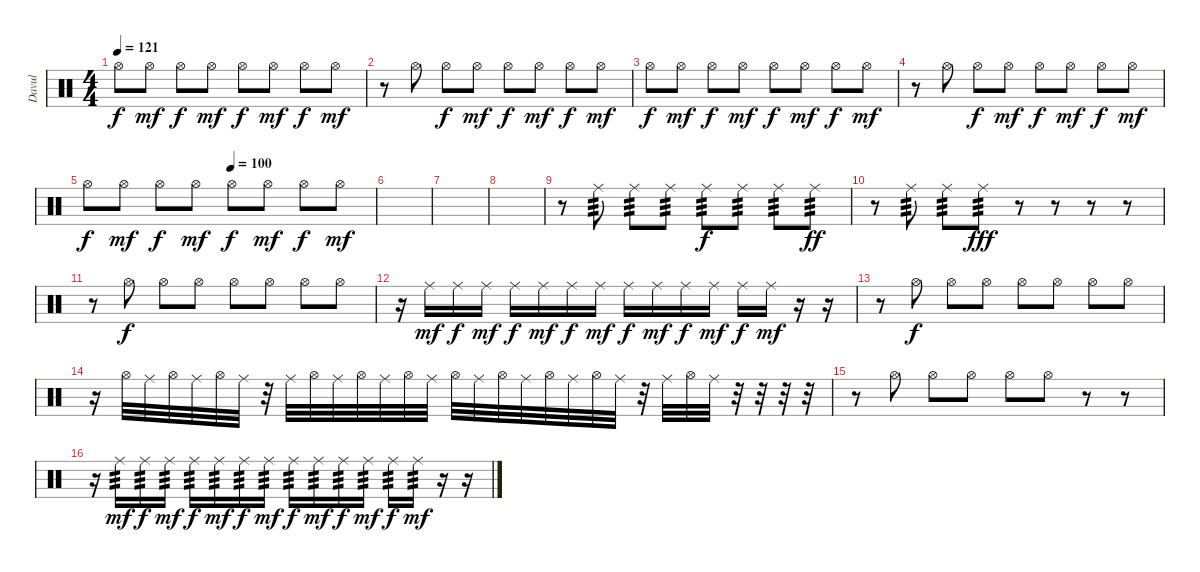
\track ("Davul" "Davul") {instrument percussion}
\staff {score}
\articulation defaults
\ts (4 4)
\tempo 121
\clef neutral
\ks c "Hi-Hat (open)".8{dy f} "Hi-Hat (open)".8{dy mf} "Hi-Hat (open)".8{dy f} "Hi-Hat (open)".8{dy mf} "Hi-Hat (open)".8{dy f} "Hi-Hat (open)".8{dy mf} "Hi-Hat (open)".8{dy f} "Hi-Hat (open)".8{dy mf}
|
r.8 "Hi-Hat (open)".8 "Hi-Hat (open)".8{dy f} "Hi-Hat (open)".8{dy mf} "Hi-Hat (open)".8{dy f} "Hi-Hat (open)".8{dy mf} "Hi-Hat (open)".8{dy f} "Hi-Hat (open)".8{dy mf} |
"Hi-Hat (open)".8{dy f} "Hi-Hat (open)".8{dy mf} "Hi-Hat (open)".8{dy f} "Hi-Hat (open)".8{dy mf} "Hi-Hat (open)".8{dy f} "Hi-Hat (open)".8{dy mf} "Hi-Hat (open)".8{dy f} "Hi-Hat (open)".8{dy mf} |
r.8 "Hi-Hat (open)".8 "Hi-Hat (open)".8{dy f} "Hi-Hat (open)".8{dy mf} "Hi-Hat (open)".8{dy f} "Hi-Hat (open)".8{dy mf} "Hi-Hat (open)".8{dy f} "Hi-Hat (open)".8{dy mf} |
\tempo (100 0.5)
"Hi-Hat (open)".8{dy f} "Hi-Hat (open)".8{dy mf} "Hi-Hat (open)".8{dy f} "Hi-Hat (open)".8{dy mf} "Hi-Hat (open)".8{dy f} "Hi-Hat (open)".8{dy mf} "Hi-Hat (open)".8{dy f} "Hi-Hat (open)".8{dy mf} |
\section ("" "")
|
|
|
r.8 "Ride (middle)".8{tp 3} "Ride (middle)".8{tp 3} "Ride (middle)".8{tp 3} "Ride (middle)".8{tp 3 dy f} "Ride (middle)".8{tp 3} "Ride (middle)".8{tp 3} "Ride (middle)".8{tp 3 dy ff} |
r.8 "Ride (middle)".8{tp 3} "Ride (middle)".8{tp 3} "Ride (middle)".8{tp 3 dy fff} r.8 r.8 r.8 r.8 |
r.8 "Hi-Hat (open)".8{dy f} "Hi-Hat (open)".8 "Hi-Hat (open)".8 "Hi-Hat (open)".8 "Hi-Hat (open)".8 "Hi-Hat (open)".8 "Hi-Hat (open)".8 |
r.16 "Ride (middle)".16{dy mf} "Ride (middle)".16{dy f} "Ride (middle)".16{dy mf} "Ride (middle)".16{dy f} "Ride (middle)".16{dy mf} "Ride (middle)".16{dy f} "Ride (middle)".16{dy mf} "Ride (middle)".16{dy f} "Ride (middle)".16{dy mf} "Ride (middle)".16{dy f} "Ride (middle)".16{dy mf} "Ride (middle)".16{dy f} "Ride (middle)".16{dy mf} r.16 r.16 |
r.8 "Hi-Hat (open)".8{dy f} "Hi-Hat (open)".8 "Hi-Hat (open)".8 "Hi-Hat (open)".8 "Hi-Hat (open)".8 "Hi-Hat (open)".8 "Hi-Hat (open)".8 |
r.16 "Hi-Hat (open)".32 "Ride (middle)".32 "Hi-Hat (open)".32 "Ride (middle)".32 "Hi-Hat (open)".32 "Ride (middle)".32 r.32 "Ride (middle)".32 "Hi-Hat (open)".32 "Ride (middle)".32 "Hi-Hat (open)".32 "Ride (middle)".32 "Hi-Hat (open)".32 "Ride (middle)".32 "Hi-Hat (open)".32 "Ride (middle)".32 "Hi-Hat (open)".32 "Ride (middle)".32 "Hi-Hat (open)".32 "Ride (middle)".32 "Hi-Hat (open)".32 "Ride (middle)".32 r.32 "Ride (middle)".32 "Hi-Hat (open)".32 "Ride (middle)".32 r.32 r.32 r.32 r.32 |
r.8 "Hi-Hat (open)".8 "Hi-Hat (open)".8 "Hi-Hat (open)".8 "Hi-Hat (open)".8 "Hi-Hat (open)".8 r.8 r.8 |
r.16 "Ride (middle)".16{tp 3 dy mf} "Ride (middle)".16{tp 3 dy f} "Ride (middle)".16{tp 3 dy mf} "Ride (middle)".16{tp 3 dy f} "Ride (middle)".16{tp 3 dy mf} "Ride (middle)".16{tp 3 dy f} "Ride (middle)".16{tp 3 dy mf} "Ride (middle)".16{tp 3 dy f} "Ride (middle)".16{tp 3 dy mf} "Ride (middle)".16{tp 3 dy f} "Ride (middle)".16{tp 3 dy mf} "Ride (middle)".16{tp 3 dy f} "Ride (middle)".16{tp 3 dy mf} r.16 r.16
